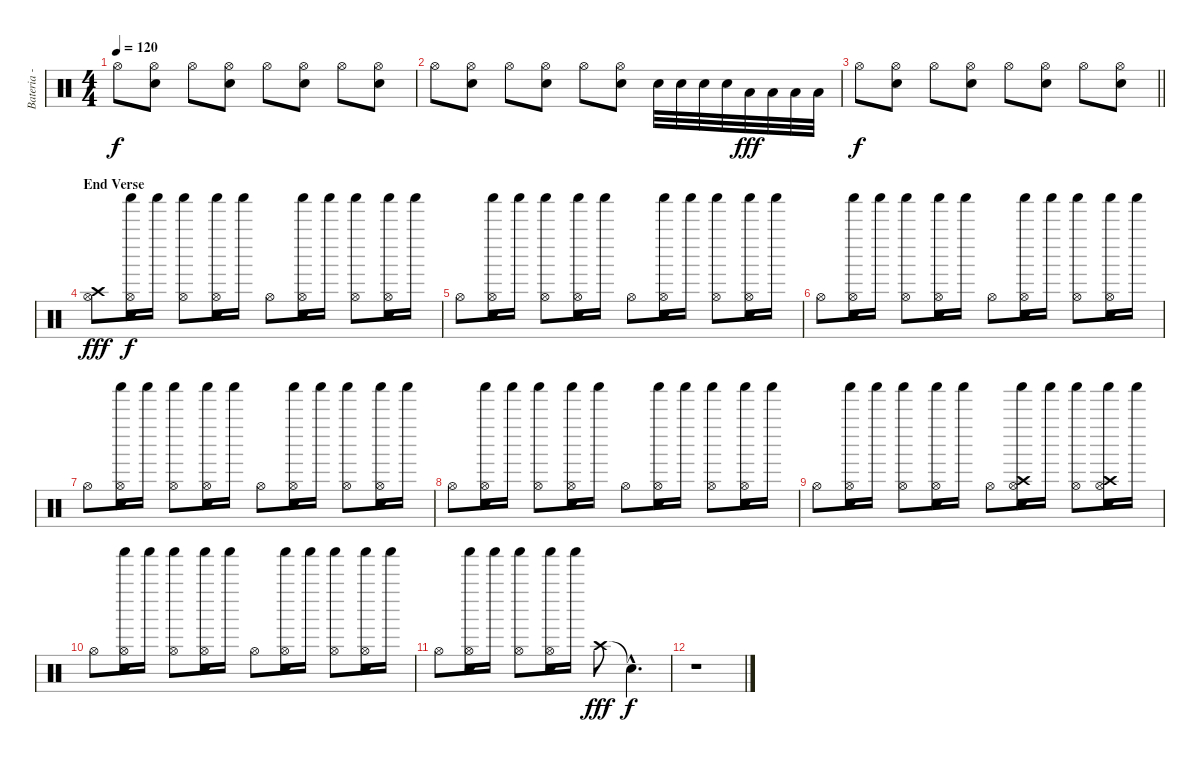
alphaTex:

\track ("Bateria - Larzon" "Bateria - ") {instrument percussion}
\staff {score}
\articulation defaults
\ts (4 4)
\tempo 120
\clef neutral
\ks c "Hi-Hat (open)".8{dy f}
("Hi-Hat (open)" "Electric Snare (hit)").8 "Hi-Hat (open)".8 ("Hi-Hat (open)" "Electric Snare (hit)").8 "Hi-Hat (open)".8 ("Hi-Hat (open)" "Electric Snare (hit)").8 "Hi-Hat (open)".8 ("Hi-Hat (open)" "Electric Snare (hit)").8 |
"Hi-Hat (open)".8 ("Hi-Hat (open)" "Electric Snare (hit)").8 "Hi-Hat (open)".8 ("Hi-Hat (open)" "Electric Snare (hit)").8 "Hi-Hat (open)".8 ("Hi-Hat (open)" "Electric Snare (hit)").8 "Electric Snare (hit)".32 "Electric Snare (hit)".32 "Electric Snare (hit)".32 "Electric Snare (hit)".32 "Low Tom (hit)".32{dy fff} "Low Tom (hit)".32 "Low Tom (hit)".32 "Low Tom (hit)".32 |
\barLineRight lightlight "Hi-Hat (open)".8{dy f}
("Hi-Hat (open)" "Electric Snare (hit)").8 "Hi-Hat (open)".8 ("Hi-Hat (open)" "Electric Snare (hit)").8 "Hi-Hat (open)".8 ("Hi-Hat (open)" "Electric Snare (hit)").8 "Hi-Hat (open)".8 ("Hi-Hat (open)" "Electric Snare (hit)").8 |
\section ("" "End Verse")
("Crash high (hit)" "Hi-Hat (open)").8{dy fff} ("Hi-Hat (open)" "Shaker (hit)" "Electric Snare (hit)").16{dy f} "Shaker (hit)".16 ("Hi-Hat (open)" "Shaker (hit)").8 ("Hi-Hat (open)" "Shaker (hit)" "Electric Snare (hit)").16 "Shaker (hit)".16 "Hi-Hat (open)".8 ("Hi-Hat (open)" "Shaker (hit)" "Electric Snare (hit)").16 "Shaker (hit)".16 ("Hi-Hat (open)" "Shaker (hit)").8 ("Hi-Hat (open)" "Shaker (hit)" "Electric Snare (hit)").16 "Shaker (hit)".16 |
"Hi-Hat (open)".8 ("Hi-Hat (open)" "Shaker (hit)" "Electric Snare (hit)").16 "Shaker (hit)".16 ("Hi-Hat (open)" "Shaker (hit)").8 ("Hi-Hat (open)" "Shaker (hit)" "Electric Snare (hit)").16 "Shaker (hit)".16 "Hi-Hat (open)".8 ("Hi-Hat (open)" "Shaker (hit)" "Electric Snare (hit)").16 "Shaker (hit)".16 ("Hi-Hat (open)" "Shaker (hit)").8 ("Hi-Hat (open)" "Shaker (hit)" "Electric Snare (hit)").16 "Shaker (hit)".16 |
"Hi-Hat (open)".8 ("Hi-Hat (open)" "Shaker (hit)" "Electric Snare (hit)").16 "Shaker (hit)".16 ("Hi-Hat (open)" "Shaker (hit)").8 ("Hi-Hat (open)" "Shaker (hit)" "Electric Snare (hit)").16 "Shaker (hit)".16 "Hi-Hat (open)".8 ("Hi-Hat (open)" "Shaker (hit)" "Electric Snare (hit)").16 "Shaker (hit)".16 ("Hi-Hat (open)" "Shaker (hit)").8 ("Hi-Hat (open)" "Shaker (hit)" "Electric Snare (hit)").16 "Shaker (hit)".16 |
"Hi-Hat (open)".8 ("Hi-Hat (open)" "Shaker (hit)" "Electric Snare (hit)").16 "Shaker (hit)".16 ("Hi-Hat (open)" "Shaker (hit)").8 ("Hi-Hat (open)" "Shaker (hit)" "Electric Snare (hit)").16 "Shaker (hit)".16 "Hi-Hat (open)".8 ("Hi-Hat (open)" "Shaker (hit)" "Electric Snare (hit)").16 "Shaker (hit)".16 ("Hi-Hat (open)" "Shaker (hit)").8 ("Hi-Hat (open)" "Shaker (hit)" "Electric Snare (hit)").16 "Shaker (hit)".16 |
"Hi-Hat (open)".8 ("Hi-Hat (open)" "Shaker (hit)" "Electric Snare (hit)").16 "Shaker (hit)".16 ("Hi-Hat (open)" "Shaker (hit)").8 ("Hi-Hat (open)" "Shaker (hit)" "Electric Snare (hit)").16 "Shaker (hit)".16 "Hi-Hat (open)".8 ("Hi-Hat (open)" "Shaker (hit)" "Electric Snare (hit)").16 "Shaker (hit)".16 ("Hi-Hat (open)" "Shaker (hit)").8 ("Hi-Hat (open)" "Shaker (hit)" "Electric Snare (hit)").16 "Shaker (hit)".16 |
"Hi-Hat (open)".8 ("Hi-Hat (open)" "Shaker (hit)" "Electric Snare (hit)").16 "Shaker (hit)".16 ("Hi-Hat (open)" "Shaker (hit)").8 ("Hi-Hat (open)" "Shaker (hit)" "Electric Snare (hit)").16 "Shaker (hit)".16 "Hi-Hat (open)".8 ("Crash high (hit)" "Hi-Hat (open)" "Shaker (hit)" "Electric Snare (hit)").16 "Shaker (hit)".16 ("Hi-Hat (open)" "Shaker (hit)").8 ("Crash high (hit)" "Hi-Hat (open)" "Shaker (hit)" "Electric Snare (hit)").16 "Shaker (hit)".16 |
"Hi-Hat (open)".8 ("Hi-Hat (open)" "Shaker (hit)" "Electric Snare (hit)").16 "Shaker (hit)".16 ("Hi-Hat (open)" "Shaker (hit)").8 ("Hi-Hat (open)" "Shaker (hit)" "Electric Snare (hit)").16 "Shaker (hit)".16 "Hi-Hat (open)".8 ("Hi-Hat (open)" "Shaker (hit)" "Electric Snare (hit)").16 "Shaker (hit)".16 ("Hi-Hat (open)" "Shaker (hit)").8 ("Hi-Hat (open)" "Shaker (hit)" "Electric Snare (hit)").16 "Shaker (hit)".16 |
"Hi-Hat (open)".8 ("Hi-Hat (open)" "Shaker (hit)" "Electric Snare (hit)").16 "Shaker (hit)".16 ("Hi-Hat (open)" "Shaker (hit)").8 ("Hi-Hat (open)" "Shaker (hit)" "Electric Snare (hit)").16 "Shaker (hit)".16 "Crash high (hit)".8{dy fff} "Snare (hit)"{hac t}.4{d dy f} |
r.1
